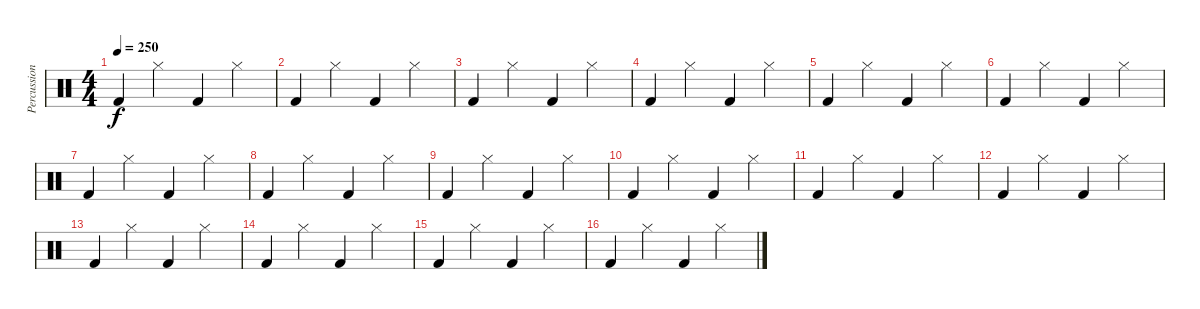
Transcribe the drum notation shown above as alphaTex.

\track ("Percussion" "Percussion") {instrument percussion}
\staff {score}
\articulation defaults
\ts (4 4)
\tempo 250
\clef neutral
\ks c "Kick (hit) 2".4{dy f} "Hi-Hat (closed)".4 "Kick (hit) 2".4 "Hi-Hat (closed)".4
|
"Kick (hit) 2".4 "Hi-Hat (closed)".4 "Kick (hit) 2".4 "Hi-Hat (closed)".4 |
"Kick (hit) 2".4 "Hi-Hat (closed)".4 "Kick (hit) 2".4 "Hi-Hat (closed)".4 |
"Kick (hit) 2".4 "Hi-Hat (closed)".4 "Kick (hit) 2".4 "Hi-Hat (closed)".4 |
"Kick (hit) 2".4 "Hi-Hat (closed)".4 "Kick (hit) 2".4 "Hi-Hat (closed)".4 |
"Kick (hit) 2".4 "Hi-Hat (closed)".4 "Kick (hit) 2".4 "Hi-Hat (closed)".4 |
"Kick (hit) 2".4 "Hi-Hat (closed)".4 "Kick (hit) 2".4 "Hi-Hat (closed)".4 |
"Kick (hit) 2".4 "Hi-Hat (closed)".4 "Kick (hit) 2".4 "Hi-Hat (closed)".4 |
"Kick (hit) 2".4 "Hi-Hat (closed)".4 "Kick (hit) 2".4 "Hi-Hat (closed)".4 |
"Kick (hit) 2".4 "Hi-Hat (closed)".4 "Kick (hit) 2".4 "Hi-Hat (closed)".4 |
"Kick (hit) 2".4 "Hi-Hat (closed)".4 "Kick (hit) 2".4 "Hi-Hat (closed)".4 |
"Kick (hit) 2".4 "Hi-Hat (closed)".4 "Kick (hit) 2".4 "Hi-Hat (closed)".4 |
"Kick (hit) 2".4 "Hi-Hat (closed)".4 "Kick (hit) 2".4 "Hi-Hat (closed)".4 |
"Kick (hit) 2".4 "Hi-Hat (closed)".4 "Kick (hit) 2".4 "Hi-Hat (closed)".4 |
"Kick (hit) 2".4 "Hi-Hat (closed)".4 "Kick (hit) 2".4 "Hi-Hat (closed)".4 |
"Kick (hit) 2".4 "Hi-Hat (closed)".4 "Kick (hit) 2".4 "Hi-Hat (closed)".4
